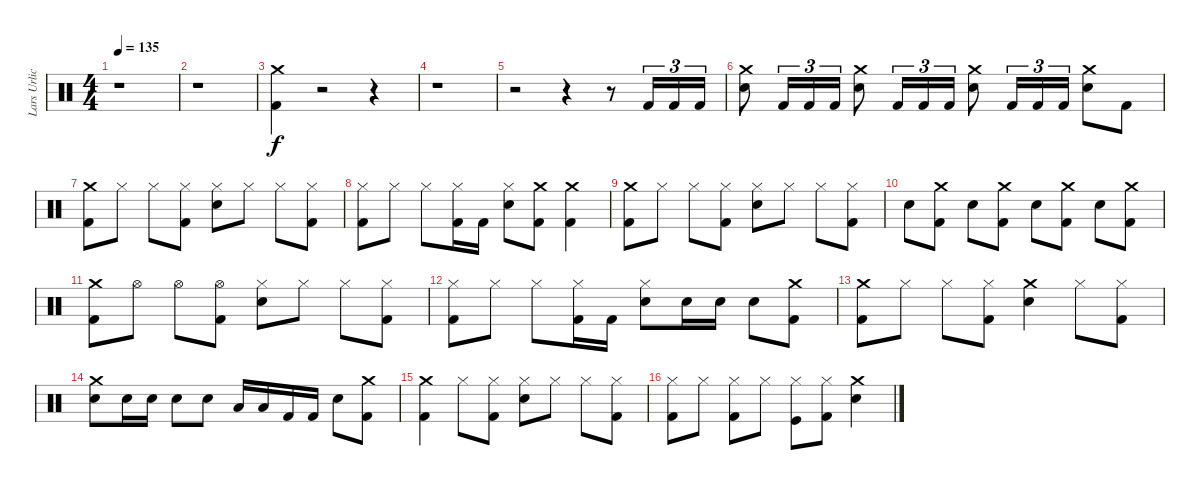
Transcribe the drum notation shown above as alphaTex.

\track ("Lars Urlich (drums)" "Lars Urlic") {instrument percussion}
\staff {score}
\articulation defaults
\ts (4 4)
\tempo 135
\clef neutral
\ks c
r.1{dy f} |
r.1 |
("Kick (hit) 2" "Crash medium (hit)").4 r.2 r.4 |
r.1 |
r.2 r.4 r.8 "Kick (hit) 2".16{tu (3 2)} "Kick (hit) 2".16{tu (3 2)} "Kick (hit) 2".16{tu (3 2)} |
("Snare (hit) 2" "Crash medium (hit)").8 "Kick (hit) 2".16{tu (3 2)} "Kick (hit) 2".16{tu (3 2)} "Kick (hit) 2".16{tu (3 2)} ("Snare (hit) 2" "Crash medium (hit)").8 "Kick (hit) 2".16{tu (3 2)} "Kick (hit) 2".16{tu (3 2)} "Kick (hit) 2".16{tu (3 2)} ("Snare (hit) 2" "Crash medium (hit)").8 "Kick (hit) 2".16{tu (3 2)} "Kick (hit) 2".16{tu (3 2)} "Kick (hit) 2".16{tu (3 2)} ("Snare (hit) 2" "Crash medium (hit)").8 "Kick (hit) 2".8 |
("Kick (hit) 2" "Crash medium (hit)").8 "Hi-Hat (closed)".8 "Hi-Hat (closed)".8 ("Kick (hit) 2" "Hi-Hat (closed)").8 ("Snare (hit) 2" "Hi-Hat (closed)").8 "Hi-Hat (closed)".8 "Hi-Hat (closed)".8 ("Kick (hit) 2" "Hi-Hat (closed)").8 |
("Hi-Hat (closed)" "Kick (hit) 2").8 "Hi-Hat (closed)".8 "Hi-Hat (closed)".8 ("Hi-Hat (closed)" "Kick (hit) 2").16 "Kick (hit) 2".16 ("Snare (hit) 2" "Hi-Hat (closed)").8 ("Kick (hit) 2" "Crash medium (hit)").8 ("Kick (hit) 2" "Crash medium (hit)").4 |
("Crash medium (hit)" "Kick (hit) 2").8 "Hi-Hat (closed)".8 "Hi-Hat (closed)".8 ("Kick (hit) 2" "Hi-Hat (closed)").8 ("Snare (hit) 2" "Hi-Hat (closed)").8 "Hi-Hat (closed)".8 "Hi-Hat (closed)".8 ("Kick (hit) 2" "Hi-Hat (closed)").8 |
"Snare (hit) 2".8 ("Kick (hit) 2" "Crash medium (hit)").8 "Snare (hit) 2".8 ("Kick (hit) 2" "Crash medium (hit)").8 "Snare (hit) 2".8 ("Kick (hit) 2" "Crash medium (hit)").8 "Snare (hit) 2".8 ("Kick (hit) 2" "Crash medium (hit)").8 |
("Kick (hit) 2" "Crash medium (hit)").8 "Hi-Hat (open)".8 "Hi-Hat (open)".8 ("Kick (hit) 2" "Hi-Hat (open)").8 ("Snare (hit) 2" "Hi-Hat (closed)").8 "Hi-Hat (closed)".8 "Hi-Hat (closed)".8 ("Kick (hit) 2" "Hi-Hat (closed)").8 |
("Hi-Hat (closed)" "Kick (hit) 2").8 "Hi-Hat (closed)".8 "Hi-Hat (closed)".8 ("Kick (hit) 2" "Hi-Hat (closed)").16 "Kick (hit) 2".16 ("Snare (hit) 2" "Hi-Hat (closed)").8 "Snare (hit) 2".16 "Snare (hit) 2".16 "Snare (hit) 2".8 ("Kick (hit) 2" "Crash medium (hit)").8 |
("Crash medium (hit)" "Kick (hit) 2").8 "Hi-Hat (closed)".8 "Hi-Hat (closed)".8 ("Kick (hit) 2" "Hi-Hat (closed)").8 ("Snare (hit) 2" "Crash medium (hit)").4 "Hi-Hat (closed)".8 ("Kick (hit) 2" "Hi-Hat (closed)").8 |
("Snare (hit) 2" "Crash medium (hit)").8 "Snare (hit) 2".16 "Snare (hit) 2".16 "Snare (hit) 2".8 "Snare (hit) 2".8 "Low Tom (hit)".16 "Low Tom (hit)".16 "Kick (hit) 2".16 "Kick (hit) 2".16 "Snare (hit) 2".8 ("Kick (hit) 2" "Crash medium (hit)").8 |
("Kick (hit) 2" "Crash medium (hit)").4 "Hi-Hat (closed)".8 ("Kick (hit) 2" "Hi-Hat (closed)").8 ("Snare (hit) 2" "Hi-Hat (closed)").8 "Hi-Hat (closed)".8 "Hi-Hat (closed)".8 ("Kick (hit) 2" "Hi-Hat (closed)").8 |
("Hi-Hat (closed)" "Kick (hit) 2").8 "Hi-Hat (closed)".8 ("Hi-Hat (closed)" "Kick (hit) 2").8 "Hi-Hat (closed)".8 ("Kick (hit)" "Hi-Hat (closed)").8 ("Kick (hit) 2" "Hi-Hat (closed)").8 ("Crash medium (hit)" "Snare (hit) 2").4
